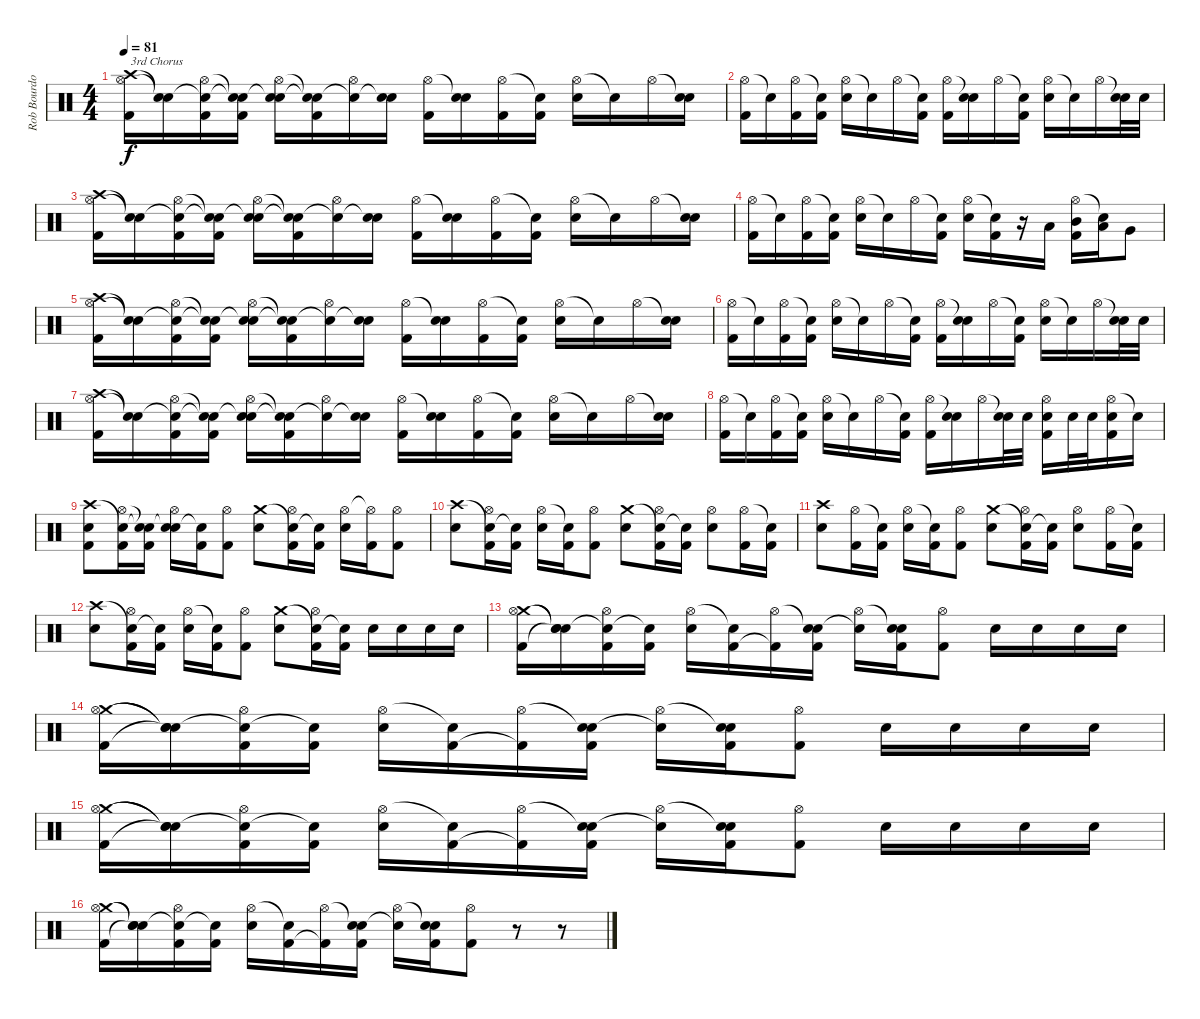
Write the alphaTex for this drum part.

\track ("Rob Bourdon - Drums" "Rob Bourdo") {instrument percussion}
\staff {score}
\articulation defaults
\ts (4 4)
\tempo 81
\clef neutral
\ks c
("Crash high (hit)" "Hi-Hat (open)" "Kick (hit) 2").16{txt "3rd Chorus" dy f volume 12} ("Snare (hit)"{t} "Snare (hit)"{t}).16 ("Snare (hit)"{t} "Hi-Hat (open)" "Kick (hit) 2").16 ("Snare (hit)"{t} "Snare (hit)"{t} "Kick (hit) 2").16 ("Snare (hit)"{t} "Hi-Hat (open)" "Electric Snare (hit)").16 ("Snare (hit)"{t} "Snare (hit)"{t} "Kick (hit) 2").16 ("Snare (hit)"{t} "Hi-Hat (open)").16 ("Snare (hit)"{t} "Electric Snare (hit)").16 ("Hi-Hat (open)" "Kick (hit) 2").16 ("Snare (hit)"{t} "Electric Snare (hit)").16 ("Hi-Hat (open)" "Kick (hit) 2").16 ("Snare (hit)"{t} "Kick (hit) 2").16 ("Hi-Hat (open)" "Electric Snare (hit)").16 "Snare (hit)"{t}.16 "Hi-Hat (open)".16 ("Snare (hit)"{t} "Electric Snare (hit)").16 |
("Hi-Hat (open)" "Kick (hit) 2").16 "Snare (hit)"{t}.16 ("Hi-Hat (open)" "Kick (hit) 2").16 ("Snare (hit)"{t} "Kick (hit) 2").16 ("Hi-Hat (open)" "Electric Snare (hit)").16 "Snare (hit)"{t}.16 "Hi-Hat (open)".16 ("Snare (hit)"{t} "Kick (hit) 2").16 ("Hi-Hat (open)" "Kick (hit) 2").16 ("Snare (hit)"{t} "Electric Snare (hit)").16 "Hi-Hat (open)".16 ("Snare (hit)"{t} "Kick (hit) 2").16 ("Hi-Hat (open)" "Electric Snare (hit)").16 "Snare (hit)"{t}.16 "Hi-Hat (open)".16 ("Snare (hit)"{t} "Electric Snare (hit)").32 "Electric Snare (hit)".32 |
("Crash high (hit)" "Hi-Hat (open)" "Kick (hit) 2").16 ("Snare (hit)"{t} "Snare (hit)"{t}).16 ("Snare (hit)"{t} "Hi-Hat (open)" "Kick (hit) 2").16 ("Snare (hit)"{t} "Snare (hit)"{t} "Kick (hit) 2").16 ("Snare (hit)"{t} "Hi-Hat (open)" "Electric Snare (hit)").16 ("Snare (hit)"{t} "Snare (hit)"{t} "Kick (hit) 2").16 ("Snare (hit)"{t} "Hi-Hat (open)").16 ("Snare (hit)"{t} "Electric Snare (hit)").16 ("Hi-Hat (open)" "Kick (hit) 2").16 ("Snare (hit)"{t} "Electric Snare (hit)").16 ("Hi-Hat (open)" "Kick (hit) 2").16 ("Snare (hit)"{t} "Kick (hit) 2").16 ("Hi-Hat (open)" "Electric Snare (hit)").16 "Snare (hit)"{t}.16 "Hi-Hat (open)".16 ("Snare (hit)"{t} "Electric Snare (hit)").16 |
("Hi-Hat (open)" "Kick (hit) 2").16 "Snare (hit)"{t}.16 ("Hi-Hat (open)" "Kick (hit) 2").16 ("Snare (hit)"{t} "Kick (hit) 2").16 ("Hi-Hat (open)" "Electric Snare (hit)").16 "Snare (hit)"{t}.16 "Hi-Hat (open)".16 ("Snare (hit)"{t} "Kick (hit) 2").16 ("Hi-Hat (open)" "Electric Snare (hit)").16 ("Snare (hit)"{t} "Kick (hit) 2").16 r.16 "Low Tom (hit)".16 ("Hi-Hat (open)" "Mid Tom (hit)" "Kick (hit) 2").16 ("Snare (hit)"{t} "Low Tom (hit)").16 "Very Low Tom (hit)".8 |
("Crash high (hit)" "Hi-Hat (open)" "Kick (hit) 2").16 ("Snare (hit)"{t} "Snare (hit)"{t}).16 ("Snare (hit)"{t} "Hi-Hat (open)" "Kick (hit) 2").16 ("Snare (hit)"{t} "Snare (hit)"{t} "Kick (hit) 2").16 ("Snare (hit)"{t} "Hi-Hat (open)" "Electric Snare (hit)").16 ("Snare (hit)"{t} "Snare (hit)"{t} "Kick (hit) 2").16 ("Snare (hit)"{t} "Hi-Hat (open)").16 ("Snare (hit)"{t} "Electric Snare (hit)").16 ("Hi-Hat (open)" "Kick (hit) 2").16 ("Snare (hit)"{t} "Electric Snare (hit)").16 ("Hi-Hat (open)" "Kick (hit) 2").16 ("Snare (hit)"{t} "Kick (hit) 2").16 ("Hi-Hat (open)" "Electric Snare (hit)").16 "Snare (hit)"{t}.16 "Hi-Hat (open)".16 ("Snare (hit)"{t} "Electric Snare (hit)").16 |
("Hi-Hat (open)" "Kick (hit) 2").16 "Snare (hit)"{t}.16 ("Hi-Hat (open)" "Kick (hit) 2").16 ("Snare (hit)"{t} "Kick (hit) 2").16 ("Hi-Hat (open)" "Electric Snare (hit)").16 "Snare (hit)"{t}.16 "Hi-Hat (open)".16 ("Snare (hit)"{t} "Kick (hit) 2").16 ("Hi-Hat (open)" "Kick (hit) 2").16 ("Snare (hit)"{t} "Electric Snare (hit)").16 "Hi-Hat (open)".16 ("Snare (hit)"{t} "Kick (hit) 2").16 ("Hi-Hat (open)" "Electric Snare (hit)").16 "Snare (hit)"{t}.16 "Hi-Hat (open)".16 ("Snare (hit)"{t} "Electric Snare (hit)").32 "Electric Snare (hit)".32 |
("Crash high (hit)" "Hi-Hat (open)" "Kick (hit) 2").16 ("Snare (hit)"{t} "Snare (hit)"{t}).16 ("Snare (hit)"{t} "Hi-Hat (open)" "Kick (hit) 2").16 ("Snare (hit)"{t} "Snare (hit)"{t} "Kick (hit) 2").16 ("Snare (hit)"{t} "Hi-Hat (open)" "Electric Snare (hit)").16 ("Snare (hit)"{t} "Snare (hit)"{t} "Kick (hit) 2").16 ("Snare (hit)"{t} "Hi-Hat (open)").16 ("Snare (hit)"{t} "Electric Snare (hit)").16 ("Hi-Hat (open)" "Kick (hit) 2").16 ("Snare (hit)"{t} "Electric Snare (hit)").16 ("Hi-Hat (open)" "Kick (hit) 2").16 ("Snare (hit)"{t} "Kick (hit) 2").16 ("Hi-Hat (open)" "Electric Snare (hit)").16 "Snare (hit)"{t}.16 "Hi-Hat (open)".16 ("Snare (hit)"{t} "Electric Snare (hit)").16 |
("Hi-Hat (open)" "Kick (hit) 2").16 "Snare (hit)"{t}.16 ("Hi-Hat (open)" "Kick (hit) 2").16 ("Snare (hit)"{t} "Kick (hit) 2").16 ("Hi-Hat (open)" "Electric Snare (hit)").16 "Snare (hit)"{t}.16 "Hi-Hat (open)".16 ("Snare (hit)"{t} "Kick (hit) 2").16 ("Hi-Hat (open)" "Kick (hit) 2").16 ("Snare (hit)"{t} "Electric Snare (hit)").16 "Hi-Hat (open)".16 ("Snare (hit)"{t} "Electric Snare (hit)").32 "Electric Snare (hit)".32 ("Hi-Hat (open)" "Electric Snare (hit)" "Kick (hit) 2").16 "Electric Snare (hit)".32 "Electric Snare (hit)".32 ("Hi-Hat (open)" "Electric Snare (hit)" "Kick (hit) 2").16 "Snare (hit)"{t}.16 |
("Crash high (hit)" "Electric Snare (hit)" "Kick (hit) 2").8 ("Snare (hit)"{t} "Hi-Hat (open)" "Kick (hit) 2").16 ("Snare (hit)"{t} "Snare (hit)"{t} "Kick (hit) 2").16 ("Snare (hit)"{t} "Hi-Hat (open)" "Electric Snare (hit)").16 ("Snare (hit)"{t} "Kick (hit) 2").16 ("Hi-Hat (open)" "Kick (hit) 2").8 ("Crash medium (hit)" "Electric Snare (hit)").8 ("Snare (hit)"{t} "Hi-Hat (open)" "Kick (hit) 2").16 ("Snare (hit)"{t} "Kick (hit) 2").16 ("Hi-Hat (open)" "Electric Snare (hit)").16 ("Hi-Hat (open)"{t} "Kick (hit) 2").16 ("Hi-Hat (open)" "Kick (hit) 2").8 |
("Crash high (hit)" "Electric Snare (hit)").8 ("Snare (hit)"{t} "Hi-Hat (open)" "Kick (hit) 2").16 ("Snare (hit)"{t} "Kick (hit) 2").16 ("Hi-Hat (open)" "Electric Snare (hit)").16 ("Snare (hit)"{t} "Kick (hit) 2").16 ("Hi-Hat (open)" "Kick (hit) 2").8 ("Crash medium (hit)" "Electric Snare (hit)").8 ("Snare (hit)"{t} "Hi-Hat (open)" "Kick (hit) 2").16 ("Snare (hit)"{t} "Kick (hit) 2").16 ("Hi-Hat (open)" "Electric Snare (hit)").8 ("Hi-Hat (open)" "Kick (hit) 2").16 ("Snare (hit)"{t} "Kick (hit) 2").16 |
("Crash high (hit)" "Electric Snare (hit)").8 ("Hi-Hat (open)" "Kick (hit) 2").16 ("Snare (hit)"{t} "Kick (hit) 2").16 ("Hi-Hat (open)" "Electric Snare (hit)").16 ("Snare (hit)"{t} "Kick (hit) 2").16 ("Hi-Hat (open)" "Kick (hit) 2").8 ("Crash medium (hit)" "Electric Snare (hit)").8 ("Snare (hit)"{t} "Hi-Hat (open)" "Kick (hit) 2").16 ("Snare (hit)"{t} "Kick (hit) 2").16 ("Hi-Hat (open)" "Electric Snare (hit)").8 ("Hi-Hat (open)" "Kick (hit) 2").16 ("Snare (hit)"{t} "Kick (hit) 2").16 |
("Crash high (hit)" "Electric Snare (hit)").8 ("Snare (hit)"{t} "Hi-Hat (open)" "Kick (hit) 2").16 ("Snare (hit)"{t} "Kick (hit) 2").16 ("Hi-Hat (open)" "Electric Snare (hit)").16 ("Snare (hit)"{t} "Kick (hit) 2").16 ("Hi-Hat (open)" "Kick (hit) 2").8 ("Crash medium (hit)" "Electric Snare (hit)").8 ("Snare (hit)"{t} "Hi-Hat (open)" "Kick (hit) 2").16 ("Snare (hit)"{t} "Kick (hit) 2").16 "Electric Snare (hit)".16 "Electric Snare (hit)".16 "Electric Snare (hit)".16 "Electric Snare (hit)".16 |
("Crash medium (hit)" "Hi-Hat (open)" "Kick (hit) 2").16 ("Snare (hit)"{t} "Snare (hit)"{t} "Snare (hit)"{t}).16 ("Snare (hit)"{t} "Hi-Hat (open)" "Kick (hit) 2").16 ("Snare (hit)"{t} "Kick (hit) 2").16 ("Hi-Hat (open)" "Electric Snare (hit)").16 ("Snare (hit)"{t} "Kick (hit) 2").16 ("Hi-Hat (open)" "Kick (hit) 2"{t}).16 ("Snare (hit)"{t} "Electric Snare (hit)" "Kick (hit) 2").16 ("Hi-Hat (open)" "Snare (hit)"{t}).16 ("Snare (hit)"{t} "Electric Snare (hit)" "Kick (hit) 2").16 ("Hi-Hat (open)" "Kick (hit) 2").8 "Electric Snare (hit)".16 "Electric Snare (hit)".16 "Electric Snare (hit)".16 "Electric Snare (hit)".16 |
("Crash medium (hit)" "Hi-Hat (open)" "Kick (hit) 2").16 ("Snare (hit)"{t} "Snare (hit)"{t} "Snare (hit)"{t}).16 ("Snare (hit)"{t} "Hi-Hat (open)" "Kick (hit) 2").16 ("Snare (hit)"{t} "Kick (hit) 2").16 ("Hi-Hat (open)" "Electric Snare (hit)").16 ("Snare (hit)"{t} "Kick (hit) 2").16 ("Hi-Hat (open)" "Kick (hit) 2"{t}).16 ("Snare (hit)"{t} "Electric Snare (hit)" "Kick (hit) 2").16 ("Hi-Hat (open)" "Snare (hit)"{t}).16 ("Snare (hit)"{t} "Electric Snare (hit)" "Kick (hit) 2").16 ("Hi-Hat (open)" "Kick (hit) 2").8 "Electric Snare (hit)".16 "Electric Snare (hit)".16 "Electric Snare (hit)".16 "Electric Snare (hit)".16 |
("Crash medium (hit)" "Hi-Hat (open)" "Kick (hit) 2").16 ("Snare (hit)"{t} "Snare (hit)"{t} "Snare (hit)"{t}).16 ("Snare (hit)"{t} "Hi-Hat (open)" "Kick (hit) 2").16 ("Snare (hit)"{t} "Kick (hit) 2").16 ("Hi-Hat (open)" "Electric Snare (hit)").16 ("Snare (hit)"{t} "Kick (hit) 2").16 ("Hi-Hat (open)" "Kick (hit) 2"{t}).16 ("Snare (hit)"{t} "Electric Snare (hit)" "Kick (hit) 2").16 ("Hi-Hat (open)" "Snare (hit)"{t}).16 ("Snare (hit)"{t} "Electric Snare (hit)" "Kick (hit) 2").16 ("Hi-Hat (open)" "Kick (hit) 2").8 "Electric Snare (hit)".16 "Electric Snare (hit)".16 "Electric Snare (hit)".16 "Electric Snare (hit)".16 |
("Crash medium (hit)" "Hi-Hat (open)" "Kick (hit) 2").16 ("Snare (hit)"{t} "Snare (hit)"{t} "Snare (hit)"{t}).16 ("Snare (hit)"{t} "Hi-Hat (open)" "Kick (hit) 2").16 ("Snare (hit)"{t} "Kick (hit) 2").16 ("Hi-Hat (open)" "Electric Snare (hit)").16 ("Snare (hit)"{t} "Kick (hit) 2").16 ("Hi-Hat (open)" "Kick (hit) 2"{t}).16 ("Snare (hit)"{t} "Electric Snare (hit)" "Kick (hit) 2").16 ("Hi-Hat (open)" "Snare (hit)"{t}).16 ("Snare (hit)"{t} "Electric Snare (hit)" "Kick (hit) 2").16 ("Hi-Hat (open)" "Kick (hit) 2").8 r.8 r.8
